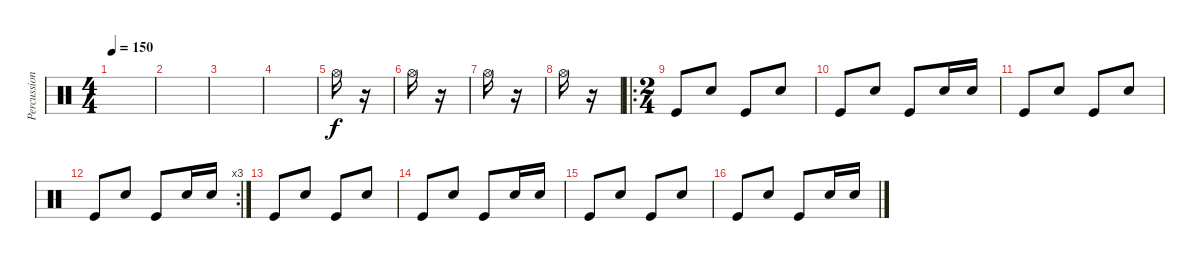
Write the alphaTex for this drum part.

\track ("Percussions" "Percussion") {instrument percussion}
\staff {score}
\articulation defaults
\ts (4 4)
\tempo 150
\clef neutral
\ks c
|
|
|
|
"Hi-Hat (open)".16 r.16 |
"Hi-Hat (open)".16 r.16 |
"Hi-Hat (open)".16 r.16 |
"Hi-Hat (open)".16 r.16 |
\ro
\ts (2 4)
"Kick (hit)".8 "Electric Snare (hit)".8 "Kick (hit)".8 "Electric Snare (hit)".8 |
"Kick (hit)".8 "Electric Snare (hit)".8 "Kick (hit)".8 "Electric Snare (hit)".16 "Electric Snare (hit)".16 |
"Kick (hit)".8 "Electric Snare (hit)".8 "Kick (hit)".8 "Electric Snare (hit)".8 |
\rc 3 "Kick (hit)".8 "Electric Snare (hit)".8 "Kick (hit)".8 "Electric Snare (hit)".16 "Electric Snare (hit)".16
|
"Kick (hit)".8 "Electric Snare (hit)".8 "Kick (hit)".8 "Electric Snare (hit)".8 |
"Kick (hit)".8 "Electric Snare (hit)".8 "Kick (hit)".8 "Electric Snare (hit)".16 "Electric Snare (hit)".16 |
"Kick (hit)".8 "Electric Snare (hit)".8 "Kick (hit)".8 "Electric Snare (hit)".8 |
"Kick (hit)".8 "Electric Snare (hit)".8 "Kick (hit)".8 "Electric Snare (hit)".16 "Electric Snare (hit)".16
